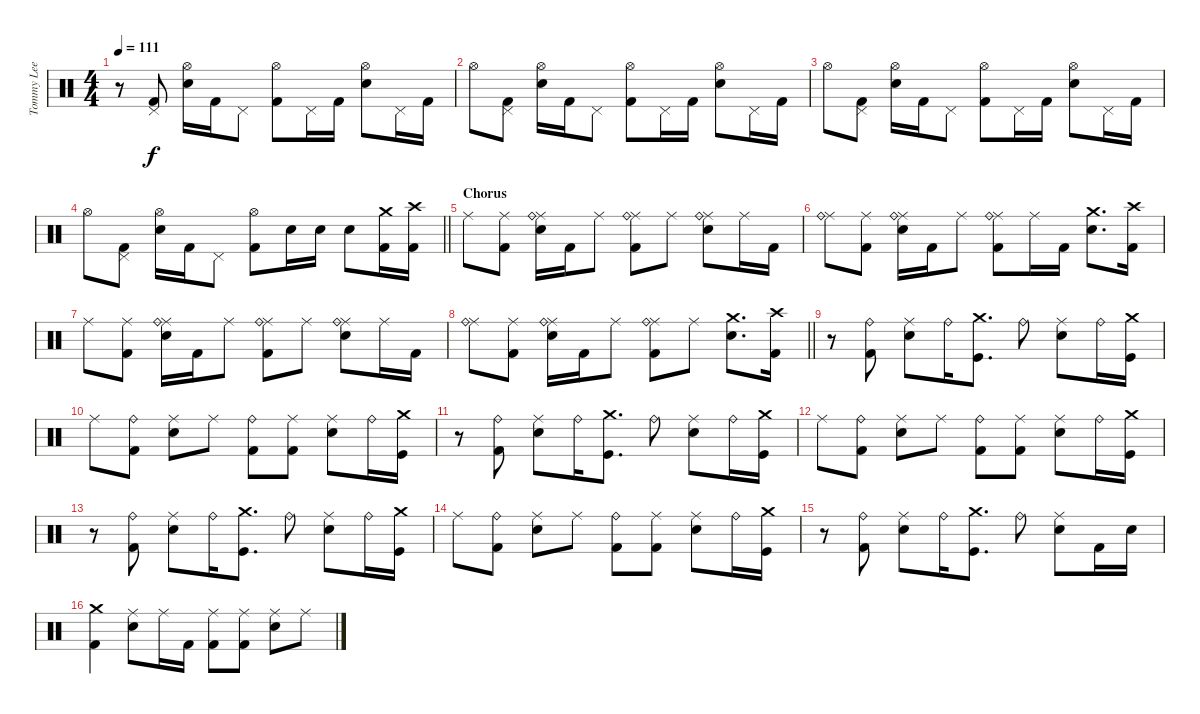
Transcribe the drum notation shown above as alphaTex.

\track ("Tommy Lee" "Tommy Lee") {instrument percussion}
\staff {score}
\articulation defaults
\ts (4 4)
\tempo 111
\clef neutral
\ks c
r.8{dy f} ("Pedal Hi-Hat (hit)" "Kick (hit) 2").8 ("Hi-Hat (open)" "Snare (hit) 2").16 "Kick (hit) 2".16 "Pedal Hi-Hat (hit)".8 ("Hi-Hat (open)" "Kick (hit) 2").8 "Pedal Hi-Hat (hit)".16 "Kick (hit) 2".16 ("Hi-Hat (open)" "Snare (hit) 2").8 "Pedal Hi-Hat (hit)".16 "Kick (hit) 2".16 |
"Hi-Hat (open)".8 ("Pedal Hi-Hat (hit)" "Kick (hit) 2").8 ("Hi-Hat (open)" "Snare (hit) 2").16 "Kick (hit) 2".16 "Pedal Hi-Hat (hit)".8 ("Hi-Hat (open)" "Kick (hit) 2").8 "Pedal Hi-Hat (hit)".16 "Kick (hit) 2".16 ("Hi-Hat (open)" "Snare (hit) 2").8 "Pedal Hi-Hat (hit)".16 "Kick (hit) 2".16 |
"Hi-Hat (open)".8 ("Pedal Hi-Hat (hit)" "Kick (hit) 2").8 ("Hi-Hat (open)" "Snare (hit) 2").16 "Kick (hit) 2".16 "Pedal Hi-Hat (hit)".8 ("Hi-Hat (open)" "Kick (hit) 2").8 "Pedal Hi-Hat (hit)".16 "Kick (hit) 2".16 ("Hi-Hat (open)" "Snare (hit) 2").8 "Pedal Hi-Hat (hit)".16 "Kick (hit) 2".16 |
\barLineRight lightlight "Hi-Hat (open)".8
("Pedal Hi-Hat (hit)" "Kick (hit) 2").8 ("Hi-Hat (open)" "Snare (hit) 2").16 "Kick (hit) 2".16 "Pedal Hi-Hat (hit)".8 ("Hi-Hat (open)" "Kick (hit) 2").8 "Snare (hit) 2".16 "Snare (hit) 2".16 "Snare (hit) 2".8 ("Crash medium (hit)" "Kick (hit) 2").16 ("Crash high (hit)" "Kick (hit) 2").16 |
\section ("" "Chorus")
"Ride (middle)".8 ("Ride (middle)" "Kick (hit) 2").8 ("Ride (middle)" "Ride (bell)" "Snare (hit) 2").16 "Kick (hit) 2".16 "Ride (middle)".8 ("Ride (middle)" "Ride (bell)" "Kick (hit) 2").8 "Ride (middle)".8 ("Ride (middle)" "Ride (bell)" "Snare (hit) 2").8 "Ride (middle)".16 "Kick (hit) 2".16 |
("Ride (middle)" "Ride (bell)").8 ("Ride (middle)" "Kick (hit) 2").8 ("Ride (middle)" "Ride (bell)" "Snare (hit) 2").16 "Kick (hit) 2".16 "Ride (middle)".8 ("Ride (middle)" "Ride (bell)" "Kick (hit) 2").8 "Ride (middle)".16 "Kick (hit) 2".16 ("Crash medium (hit)" "Snare (hit) 2").8{d} ("Crash high (hit)" "Kick (hit) 2").16 |
"Ride (middle)".8 ("Ride (middle)" "Kick (hit) 2").8 ("Ride (middle)" "Ride (bell)" "Snare (hit) 2").16 "Kick (hit) 2".16 "Ride (middle)".8 ("Ride (middle)" "Ride (bell)" "Kick (hit) 2").8 "Ride (middle)".8 ("Ride (middle)" "Ride (bell)" "Snare (hit) 2").8 "Ride (middle)".16 "Kick (hit) 2".16 |
\barLineRight lightlight
("Ride (middle)" "Ride (bell)").8 ("Ride (middle)" "Kick (hit) 2").8 ("Ride (middle)" "Ride (bell)" "Snare (hit) 2").16 "Kick (hit) 2".16 "Ride (middle)".8 ("Ride (middle)" "Ride (bell)" "Kick (hit) 2").8 "Ride (middle)".8 ("Crash medium (hit)" "Snare (hit) 2").8{d} ("Crash high (hit)" "Kick (hit) 2").16 |
r.8 ("Ride (bell)" "Kick (hit) 2").8 ("Ride (middle)" "Snare (hit) 2").8 "Ride (bell)".16 ("Crash medium (hit)" "Kick (hit)").8{d} "Ride (bell)".8 ("Ride (middle)" "Snare (hit) 2").8 "Ride (bell)".16 ("Crash medium (hit)" "Kick (hit)").16 |
"Ride (middle)".8 ("Ride (bell)" "Kick (hit) 2").8 ("Ride (middle)" "Snare (hit) 2").8 "Ride (middle)".8 ("Ride (bell)" "Kick (hit) 2").8 ("Ride (middle)" "Kick (hit) 2").8 ("Ride (middle)" "Snare (hit) 2").8 "Ride (bell)".16 ("Crash medium (hit)" "Kick (hit)").16 |
r.8 ("Ride (bell)" "Kick (hit) 2").8 ("Ride (middle)" "Snare (hit) 2").8 "Ride (bell)".16 ("Crash medium (hit)" "Kick (hit)").8{d} "Ride (bell)".8 ("Ride (middle)" "Snare (hit) 2").8 "Ride (bell)".16 ("Crash medium (hit)" "Kick (hit)").16 |
"Ride (middle)".8 ("Ride (bell)" "Kick (hit) 2").8 ("Ride (middle)" "Snare (hit) 2").8 "Ride (middle)".8 ("Ride (bell)" "Kick (hit) 2").8 ("Ride (middle)" "Kick (hit) 2").8 ("Ride (middle)" "Snare (hit) 2").8 "Ride (bell)".16 ("Crash medium (hit)" "Kick (hit)").16 |
r.8 ("Ride (bell)" "Kick (hit) 2").8 ("Ride (middle)" "Snare (hit) 2").8 "Ride (bell)".16 ("Crash medium (hit)" "Kick (hit)").8{d} "Ride (bell)".8 ("Ride (middle)" "Snare (hit) 2").8 "Ride (bell)".16 ("Crash medium (hit)" "Kick (hit)").16 |
"Ride (middle)".8 ("Ride (bell)" "Kick (hit) 2").8 ("Ride (middle)" "Snare (hit) 2").8 "Ride (middle)".8 ("Ride (bell)" "Kick (hit) 2").8 ("Ride (middle)" "Kick (hit) 2").8 ("Ride (middle)" "Snare (hit) 2").8 "Ride (bell)".16 ("Crash medium (hit)" "Kick (hit)").16 |
r.8 ("Ride (bell)" "Kick (hit) 2").8 ("Ride (middle)" "Snare (hit) 2").8 "Ride (bell)".16 ("Crash medium (hit)" "Kick (hit)").8{d} "Ride (bell)".8 ("Ride (middle)" "Snare (hit) 2").8 "Kick (hit) 2".16 "Snare (hit) 2".16 |
("Crash medium (hit)" "Kick (hit) 2").4 ("Ride (middle)" "Snare (hit) 2").8 "Ride (middle)".16 "Kick (hit) 2".16 ("Ride (middle)" "Kick (hit) 2").8 ("Ride (middle)" "Kick (hit) 2").8 ("Ride (middle)" "Snare (hit) 2").8 "Ride (middle)".8
